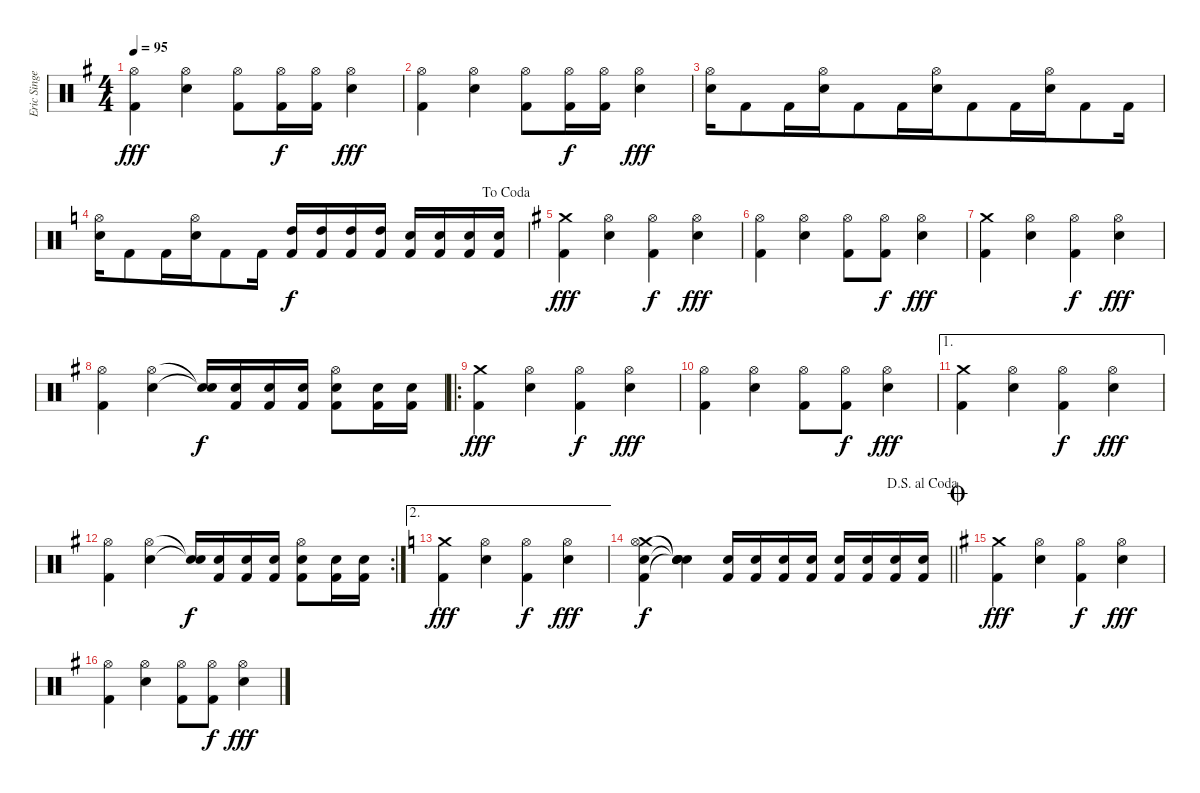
\track ("Eric Singer" "Eric Singe") {instrument percussion}
\staff {score}
\articulation defaults
\ts (4 4)
\tempo 95
\clef neutral
\ks eminor
("Hi-Hat (open)" "Kick (hit) 2").4{dy fff} ("Hi-Hat (open)" "Electric Snare (hit)").4 ("Hi-Hat (open)" "Kick (hit) 2").8 ("Hi-Hat (open)" "Kick (hit) 2").16{dy f} ("Hi-Hat (open)" "Kick (hit) 2").16 ("Hi-Hat (open)" "Electric Snare (hit)").4{dy fff} |
("Hi-Hat (open)" "Kick (hit) 2").4 ("Hi-Hat (open)" "Electric Snare (hit)").4 ("Hi-Hat (open)" "Kick (hit) 2").8 ("Hi-Hat (open)" "Kick (hit) 2").16{dy f} ("Hi-Hat (open)" "Kick (hit) 2").16 ("Hi-Hat (open)" "Electric Snare (hit)").4{dy fff} |
("Hi-Hat (open)" "Electric Snare (hit)").16{beam merge} "Kick (hit) 2".8{beam merge} "Kick (hit) 2".16{beam merge} ("Hi-Hat (open)" "Electric Snare (hit)").16{beam merge} "Kick (hit) 2".8{beam merge} "Kick (hit) 2".16{beam merge} ("Hi-Hat (open)" "Electric Snare (hit)").16{beam merge} "Kick (hit) 2".8{beam merge} "Kick (hit) 2".16{beam merge} ("Hi-Hat (open)" "Electric Snare (hit)").16{beam merge} "Kick (hit) 2".8{beam merge} "Kick (hit) 2".16 |
\jump dacoda
\ks c
("Hi-Hat (open)" "Electric Snare (hit)").16{beam merge} "Kick (hit) 2".8{beam merge} "Kick (hit) 2".16{beam merge} ("Hi-Hat (open)" "Electric Snare (hit)").16{beam merge} "Kick (hit) 2".8{beam merge} "Kick (hit) 2".16 ("High Tom (hit)" "Kick (hit) 2").16{dy f} ("High Tom (hit)" "Kick (hit) 2").16 ("High Tom (hit)" "Kick (hit) 2").16 ("High Tom (hit)" "Kick (hit) 2").16 ("Electric Snare (hit)" "Kick (hit) 2").16 ("Electric Snare (hit)" "Kick (hit) 2").16 ("Electric Snare (hit)" "Kick (hit) 2").16 ("Electric Snare (hit)" "Kick (hit) 2").16 |
\ks eminor
("Crash medium (hit)" "Kick (hit) 2").4{dy fff} ("Hi-Hat (open)" "Electric Snare (hit)").4 ("Hi-Hat (open)" "Kick (hit) 2").4{dy f} ("Hi-Hat (open)" "Electric Snare (hit)").4{dy fff} |
("Hi-Hat (open)" "Kick (hit) 2").4 ("Hi-Hat (open)" "Electric Snare (hit)").4 ("Hi-Hat (open)" "Kick (hit) 2").8 ("Hi-Hat (open)" "Kick (hit) 2").8{dy f} ("Hi-Hat (open)" "Electric Snare (hit)").4{dy fff} |
("Crash medium (hit)" "Kick (hit) 2").4 ("Hi-Hat (open)" "Electric Snare (hit)").4 ("Hi-Hat (open)" "Kick (hit) 2").4{dy f} ("Hi-Hat (open)" "Electric Snare (hit)").4{dy fff} |
("Hi-Hat (open)" "Kick (hit) 2").4 ("Hi-Hat (open)" "Electric Snare (hit)").4 ("Snare (hit)"{t} "Snare (hit)"{t}).16{dy f} ("Electric Snare (hit)" "Kick (hit) 2").16 ("Electric Snare (hit)" "Kick (hit) 2").16 ("Electric Snare (hit)" "Kick (hit) 2").16 ("Hi-Hat (open)" "Snare (hit) 2" "Kick (hit) 2").8 ("Snare (hit) 2" "Kick (hit) 2").16 ("Snare (hit) 2" "Kick (hit) 2").16 |
\ro
("Crash medium (hit)" "Kick (hit) 2").4{dy fff} ("Hi-Hat (open)" "Electric Snare (hit)").4 ("Hi-Hat (open)" "Kick (hit) 2").4{dy f} ("Hi-Hat (open)" "Electric Snare (hit)").4{dy fff} |
("Hi-Hat (open)" "Kick (hit) 2").4 ("Hi-Hat (open)" "Electric Snare (hit)").4 ("Hi-Hat (open)" "Kick (hit) 2").8 ("Hi-Hat (open)" "Kick (hit) 2").8{dy f} ("Hi-Hat (open)" "Electric Snare (hit)").4{dy fff} |
\ae 1
("Crash medium (hit)" "Kick (hit) 2").4 ("Hi-Hat (open)" "Electric Snare (hit)").4 ("Hi-Hat (open)" "Kick (hit) 2").4{dy f} ("Hi-Hat (open)" "Electric Snare (hit)").4{dy fff} |
\rc 2
("Hi-Hat (open)" "Kick (hit) 2").4 ("Hi-Hat (open)" "Electric Snare (hit)").4 ("Snare (hit)"{t} "Snare (hit)"{t}).16{dy f} ("Electric Snare (hit)" "Kick (hit) 2").16 ("Electric Snare (hit)" "Kick (hit) 2").16 ("Electric Snare (hit)" "Kick (hit) 2").16 ("Hi-Hat (open)" "Snare (hit) 2" "Kick (hit) 2").8 ("Snare (hit) 2" "Kick (hit) 2").16 ("Snare (hit) 2" "Kick (hit) 2").16 |
\ae 2
\ks c
("Crash medium (hit)" "Kick (hit) 2").4{dy fff} ("Hi-Hat (open)" "Electric Snare (hit)").4 ("Hi-Hat (open)" "Kick (hit) 2").4{dy f} ("Hi-Hat (open)" "Electric Snare (hit)").4{dy fff} |
\jump dalsegnoalcoda
\barLineRight lightlight
("Crash medium (hit)" "Hi-Hat (open)" "Snare (hit) 2" "Kick (hit) 2").4{dy f} ("Snare (hit)"{t} "Snare (hit)"{t} "Snare (hit)"{t} "Snare (hit)"{t}).4 ("Electric Snare (hit)" "Kick (hit) 2").16 ("Electric Snare (hit)" "Kick (hit) 2").16 ("Electric Snare (hit)" "Kick (hit) 2").16 ("Electric Snare (hit)" "Kick (hit) 2").16 ("Electric Snare (hit)" "Kick (hit) 2").16 ("Electric Snare (hit)" "Kick (hit) 2").16 ("Electric Snare (hit)" "Kick (hit) 2").16 ("Electric Snare (hit)" "Kick (hit) 2").16 |
\jump coda
\ks eminor
("Crash medium (hit)" "Kick (hit) 2").4{dy fff} ("Hi-Hat (open)" "Electric Snare (hit)").4 ("Hi-Hat (open)" "Kick (hit) 2").4{dy f} ("Hi-Hat (open)" "Electric Snare (hit)").4{dy fff} |
("Hi-Hat (open)" "Kick (hit) 2").4 ("Hi-Hat (open)" "Electric Snare (hit)").4 ("Hi-Hat (open)" "Kick (hit) 2").8 ("Hi-Hat (open)" "Kick (hit) 2").8{dy f} ("Hi-Hat (open)" "Electric Snare (hit)").4{dy fff}
